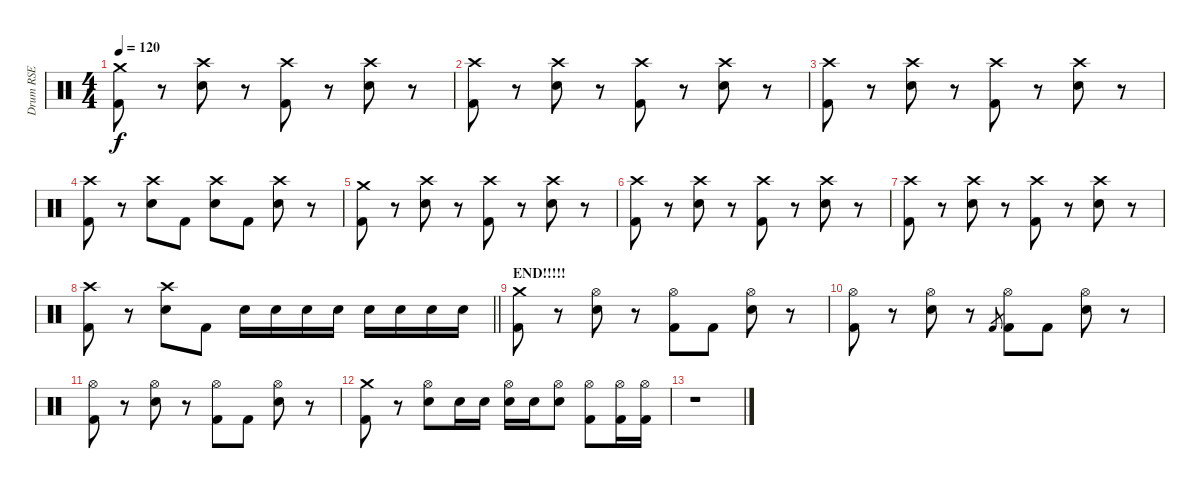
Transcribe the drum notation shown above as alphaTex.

\track ("Drum RSE" "Drum RSE") {instrument percussion}
\staff {score}
\articulation defaults
\ts (4 4)
\tempo 120
\clef neutral
\ks c
("Crash medium (hit)" "Kick (hit) 2").8{dy f} r.8 ("Crash high (hit)" "Snare (hit) 2").8 r.8 ("Crash high (hit)" "Kick (hit) 2").8 r.8 ("Crash high (hit)" "Snare (hit) 2").8 r.8 |
("Crash high (hit)" "Kick (hit) 2").8 r.8 ("Crash high (hit)" "Snare (hit) 2").8 r.8 ("Crash high (hit)" "Kick (hit) 2").8 r.8 ("Crash high (hit)" "Snare (hit) 2").8 r.8 |
("Crash high (hit)" "Kick (hit) 2").8 r.8 ("Crash high (hit)" "Snare (hit) 2").8 r.8 ("Crash high (hit)" "Kick (hit) 2").8 r.8 ("Crash high (hit)" "Snare (hit) 2").8 r.8 |
("Crash high (hit)" "Kick (hit) 2").8 r.8 ("Crash high (hit)" "Snare (hit) 2").8 "Kick (hit) 2".8 ("Crash high (hit)" "Snare (hit) 2").8 "Kick (hit) 2".8 ("Crash high (hit)" "Snare (hit) 2").8 r.8 |
("Crash medium (hit)" "Kick (hit) 2").8 r.8 ("Crash high (hit)" "Snare (hit) 2").8 r.8 ("Crash high (hit)" "Kick (hit) 2").8 r.8 ("Crash high (hit)" "Snare (hit) 2").8 r.8 |
("Crash high (hit)" "Kick (hit) 2").8 r.8 ("Crash high (hit)" "Snare (hit) 2").8 r.8 ("Crash high (hit)" "Kick (hit) 2").8 r.8 ("Crash high (hit)" "Snare (hit) 2").8 r.8 |
("Crash high (hit)" "Kick (hit) 2").8 r.8 ("Crash high (hit)" "Snare (hit) 2").8 r.8 ("Crash high (hit)" "Kick (hit) 2").8 r.8 ("Crash high (hit)" "Snare (hit) 2").8 r.8 |
\barLineRight lightlight
("Crash high (hit)" "Kick (hit) 2").8 r.8 ("Crash high (hit)" "Snare (hit) 2").8 "Kick (hit) 2".8 "Snare (hit) 2".16 "Snare (hit) 2".16 "Snare (hit) 2".16 "Snare (hit) 2".16 "Snare (hit) 2".16 "Snare (hit) 2".16 "Snare (hit) 2".16 "Snare (hit) 2".16 |
\section ("" "END!!!!!")
("Crash medium (hit)" "Kick (hit) 2").8 r.8 ("Hi-Hat (open)" "Snare (hit) 2").8 r.8 ("Hi-Hat (open)" "Kick (hit) 2").8 "Kick (hit) 2".8 ("Hi-Hat (open)" "Snare (hit) 2").8 r.8 |
("Hi-Hat (open)" "Kick (hit) 2").8 r.8 ("Hi-Hat (open)" "Snare (hit) 2").8 r.8 "Kick (hit) 2".8{gr} ("Hi-Hat (open)" "Kick (hit) 2").8 "Kick (hit) 2".8 ("Hi-Hat (open)" "Snare (hit) 2").8 r.8 |
("Hi-Hat (open)" "Kick (hit) 2").8 r.8 ("Hi-Hat (open)" "Snare (hit) 2").8 r.8 ("Hi-Hat (open)" "Kick (hit) 2").8 "Kick (hit) 2".8 ("Hi-Hat (open)" "Snare (hit) 2").8 r.8 |
("Crash medium (hit)" "Kick (hit) 2").8 r.8 ("Hi-Hat (open)" "Snare (hit) 2").8 "Snare (hit) 2".16 "Snare (hit) 2".16 ("Hi-Hat (open)" "Snare (hit) 2").16 "Snare (hit) 2".16 ("Hi-Hat (open)" "Snare (hit) 2").8 ("Hi-Hat (open)" "Kick (hit) 2").8 ("Hi-Hat (open)" "Kick (hit) 2").16 ("Hi-Hat (open)" "Kick (hit) 2").16 |
r.1
